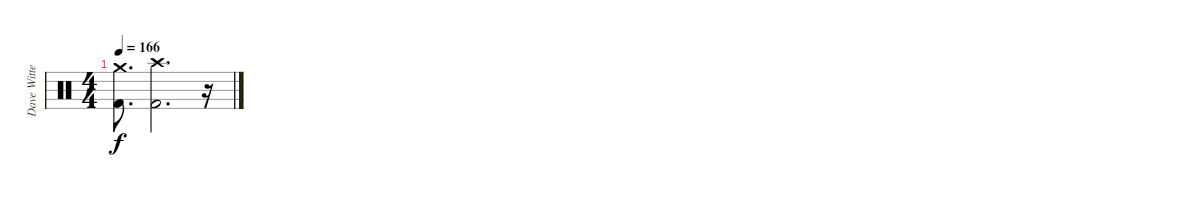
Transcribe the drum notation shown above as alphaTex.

\track ("Dave Witte" "Dave Witte") {instrument percussion}
\staff {score}
\articulation defaults
\ts (4 4)
\tempo 166
\clef neutral
\ks c
("Crash medium (hit)" "Kick (hit) 2").8{d dy f} ("Crash high (hit)" "Kick (hit) 2").2{d} r.16
